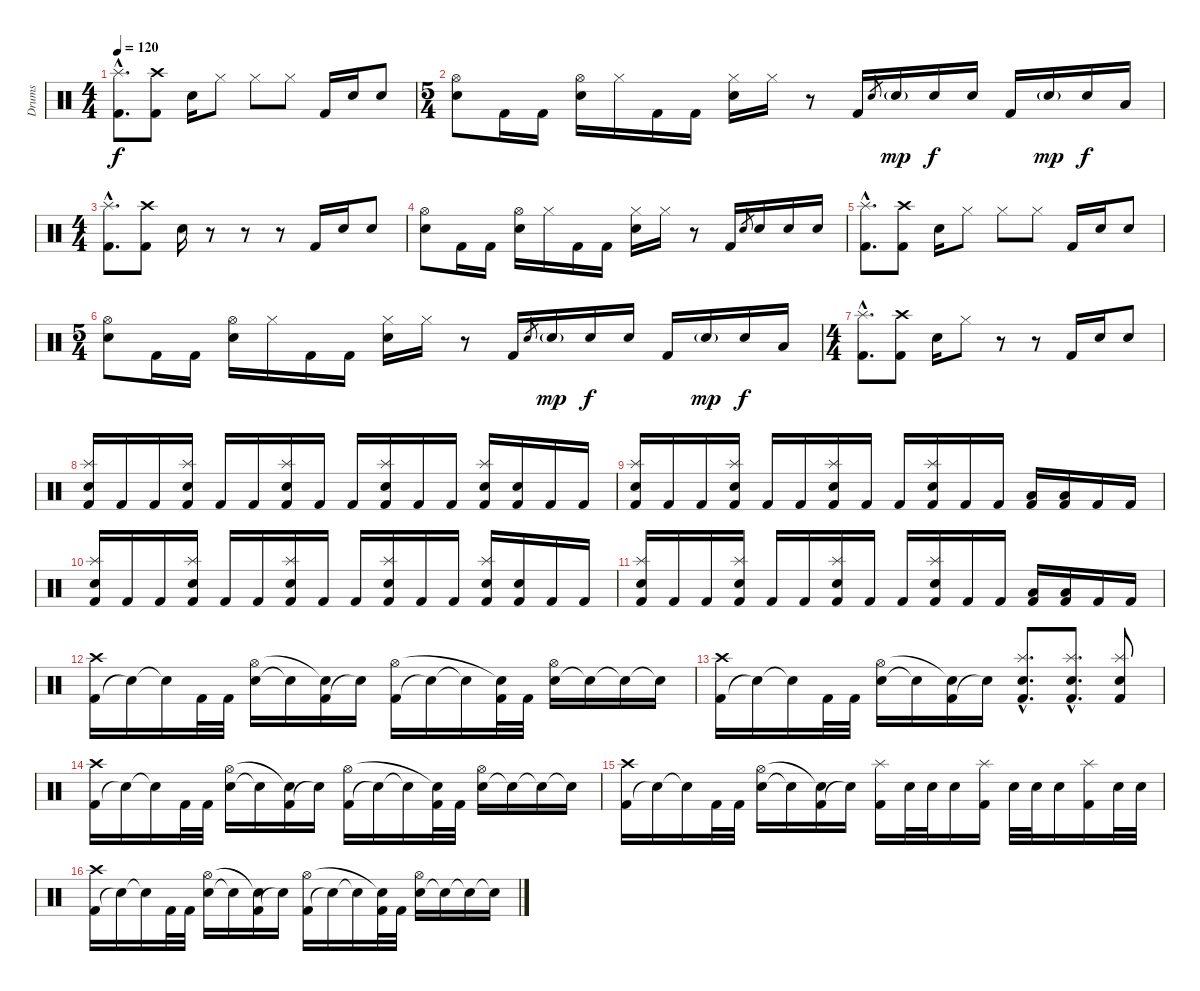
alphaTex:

\track ("Drums" "Drums") {instrument percussion}
\staff {score}
\articulation defaults
\ts (4 4)
\tempo 120
\clef neutral
\ks c
("Kick (hit) 2"{hac} "Splash (hit)"{hac}).8{d dy f} ("Kick (hit) 2" "Crash high (hit)").8 "Snare (hit) 2".16 "Hi-Hat (closed)".8 "Hi-Hat (closed)".8 "Hi-Hat (closed)".8 "Kick (hit) 2".16 "Snare (hit) 2".16 "Snare (hit) 2".8 |
\ts (5 4)
("Snare (hit) 2" "Hi-Hat (open)").8 "Kick (hit) 2".16 "Kick (hit) 2".16 ("Snare (hit) 2" "Hi-Hat (open)").16 "Hi-Hat (closed)".16 "Kick (hit) 2".16 "Kick (hit) 2".16 ("Snare (hit) 2" "Hi-Hat (closed)").16 "Hi-Hat (closed)".16 r.8 "Kick (hit) 2".16 "Snare (hit) 2".8{gr} "Snare (hit) 2"{g}.16{dy mp} "Snare (hit) 2".16{dy f} "Snare (hit) 2".16 "Kick (hit) 2".16 "Snare (hit) 2"{g}.16{dy mp} "Snare (hit) 2".16{dy f} "Low Tom (hit)".16 |
\ts (4 4)
("Kick (hit) 2"{hac} "Splash (hit)"{hac}).8{d} ("Kick (hit) 2" "Crash high (hit)").8 "Snare (hit) 2".16 r.8 r.8 r.8 "Kick (hit) 2".16 "Snare (hit) 2".16 "Snare (hit) 2".8 |
("Snare (hit) 2" "Hi-Hat (open)").8 "Kick (hit) 2".16 "Kick (hit) 2".16 ("Snare (hit) 2" "Hi-Hat (open)").16 "Hi-Hat (closed)".16 "Kick (hit) 2".16 "Kick (hit) 2".16 ("Snare (hit) 2" "Hi-Hat (closed)").16 "Hi-Hat (closed)".16 r.8 "Kick (hit) 2".16 "Snare (hit) 2".8{gr} "Snare (hit) 2".16 "Snare (hit) 2".16 "Snare (hit) 2".16 |
("Kick (hit) 2"{hac} "Splash (hit)"{hac}).8{d} ("Kick (hit) 2" "Crash high (hit)").8 "Snare (hit) 2".16 "Hi-Hat (closed)".8 "Hi-Hat (closed)".8 "Hi-Hat (closed)".8 "Kick (hit) 2".16 "Snare (hit) 2".16 "Snare (hit) 2".8 |
\ts (5 4)
("Snare (hit) 2" "Hi-Hat (open)").8 "Kick (hit) 2".16 "Kick (hit) 2".16 ("Snare (hit) 2" "Hi-Hat (open)").16 "Hi-Hat (closed)".16 "Kick (hit) 2".16 "Kick (hit) 2".16 ("Snare (hit) 2" "Hi-Hat (closed)").16 "Hi-Hat (closed)".16 r.8 "Kick (hit) 2".16 "Snare (hit) 2".8{gr} "Snare (hit) 2"{g}.16{dy mp} "Snare (hit) 2".16{dy f} "Snare (hit) 2".16 "Kick (hit) 2".16 "Snare (hit) 2"{g}.16{dy mp} "Snare (hit) 2".16{dy f} "Low Tom (hit)".16 |
\ts (4 4)
("Kick (hit) 2"{hac} "Splash (hit)"{hac}).8{d} ("Kick (hit) 2" "Crash high (hit)").8 "Snare (hit) 2".16 "Hi-Hat (closed)".8 r.8 r.8 "Kick (hit) 2".16 "Snare (hit) 2".16 "Snare (hit) 2".8 |
("Kick (hit) 2" "Snare (hit) 2" "Splash (hit)").16 "Kick (hit) 2".16 "Kick (hit) 2".16 ("Kick (hit) 2" "Snare (hit) 2" "Splash (hit)").16 "Kick (hit) 2".16 "Kick (hit) 2".16 ("Kick (hit) 2" "Snare (hit) 2" "Splash (hit)").16 "Kick (hit) 2".16 "Kick (hit) 2".16 ("Kick (hit) 2" "Snare (hit) 2" "Splash (hit)").16 "Kick (hit) 2".16 "Kick (hit) 2".16 ("Kick (hit) 2" "Snare (hit) 2" "Splash (hit)").16 ("Kick (hit) 2" "Snare (hit) 2").16 "Kick (hit) 2".16 "Kick (hit) 2".16 |
("Kick (hit) 2" "Snare (hit) 2" "Splash (hit)").16 "Kick (hit) 2".16 "Kick (hit) 2".16 ("Kick (hit) 2" "Snare (hit) 2" "Splash (hit)").16 "Kick (hit) 2".16 "Kick (hit) 2".16 ("Kick (hit) 2" "Snare (hit) 2" "Splash (hit)").16 "Kick (hit) 2".16 "Kick (hit) 2".16 ("Kick (hit) 2" "Snare (hit) 2" "Splash (hit)").16 "Kick (hit) 2".16 "Kick (hit) 2".16 ("Kick (hit) 2" "Low Tom (hit)").16 ("Kick (hit) 2" "Low Tom (hit)").16 "Kick (hit) 2".16 "Kick (hit) 2".16 |
("Kick (hit) 2" "Snare (hit) 2" "Splash (hit)").16 "Kick (hit) 2".16 "Kick (hit) 2".16 ("Kick (hit) 2" "Snare (hit) 2" "Splash (hit)").16 "Kick (hit) 2".16 "Kick (hit) 2".16 ("Kick (hit) 2" "Snare (hit) 2" "Splash (hit)").16 "Kick (hit) 2".16 "Kick (hit) 2".16 ("Kick (hit) 2" "Snare (hit) 2" "Splash (hit)").16 "Kick (hit) 2".16 "Kick (hit) 2".16 ("Kick (hit) 2" "Snare (hit) 2" "Splash (hit)").16 ("Kick (hit) 2" "Snare (hit) 2").16 "Kick (hit) 2".16 "Kick (hit) 2".16 |
("Kick (hit) 2" "Snare (hit) 2" "Splash (hit)").16 "Kick (hit) 2".16 "Kick (hit) 2".16 ("Kick (hit) 2" "Snare (hit) 2" "Splash (hit)").16 "Kick (hit) 2".16 "Kick (hit) 2".16 ("Kick (hit) 2" "Snare (hit) 2" "Splash (hit)").16 "Kick (hit) 2".16 "Kick (hit) 2".16 ("Kick (hit) 2" "Snare (hit) 2" "Splash (hit)").16 "Kick (hit) 2".16 "Kick (hit) 2".16 ("Kick (hit) 2" "Low Tom (hit)").16 ("Kick (hit) 2" "Low Tom (hit)").16 "Kick (hit) 2".16 "Kick (hit) 2".16 |
("Kick (hit) 2" "Crash high (hit)").16 "Snare (hit)"{t}.16 "Snare (hit)"{t}.16 "Kick (hit) 2".32 "Kick (hit) 2".32 ("Snare (hit) 2" "Hi-Hat (open)").16 "Snare (hit)"{t}.16 ("Kick (hit) 2" "Snare (hit)"{t}).16 "Snare (hit)"{t}.16 ("Kick (hit) 2" "Hi-Hat (open)").16 "Snare (hit)"{t}.16 "Snare (hit)"{t}.16 ("Kick (hit) 2" "Snare (hit)"{t}).32 "Kick (hit) 2".32 ("Snare (hit) 2" "Hi-Hat (open)").16 "Snare (hit)"{t}.16 "Snare (hit)"{t}.16 "Snare (hit)"{t}.16 |
("Kick (hit) 2" "Crash high (hit)").16 "Snare (hit)"{t}.16 "Snare (hit)"{t}.16 "Kick (hit) 2".32 "Kick (hit) 2".32 ("Snare (hit) 2" "Hi-Hat (open)").16 "Snare (hit)"{t}.16 ("Kick (hit) 2" "Snare (hit)"{t}).16 "Snare (hit)"{t}.16 ("Kick (hit) 2"{hac} "Snare (hit) 2"{hac} "Splash (hit)"{hac}).8{d} ("Kick (hit) 2"{hac} "Snare (hit) 2"{hac} "Splash (hit)"{hac}).8{d} ("Kick (hit) 2" "Snare (hit) 2" "Splash (hit)").8 |
("Kick (hit) 2" "Crash high (hit)").16 "Snare (hit)"{t}.16 "Snare (hit)"{t}.16 "Kick (hit) 2".32 "Kick (hit) 2".32 ("Snare (hit) 2" "Hi-Hat (open)").16 "Snare (hit)"{t}.16 ("Kick (hit) 2" "Snare (hit)"{t}).16 "Snare (hit)"{t}.16 ("Kick (hit) 2" "Hi-Hat (open)").16 "Snare (hit)"{t}.16 "Snare (hit)"{t}.16 ("Kick (hit) 2" "Snare (hit)"{t}).32 "Kick (hit) 2".32 ("Snare (hit) 2" "Hi-Hat (open)").16 "Snare (hit)"{t}.16 "Snare (hit)"{t}.16 "Snare (hit)"{t}.16 |
("Kick (hit) 2" "Crash high (hit)").16 "Snare (hit)"{t}.16 "Snare (hit)"{t}.16 "Kick (hit) 2".32 "Kick (hit) 2".32 ("Snare (hit) 2" "Hi-Hat (open)").16 "Snare (hit)"{t}.16 ("Kick (hit) 2" "Snare (hit)"{t}).16 "Snare (hit)"{t}.16 ("Kick (hit) 2" "Splash (hit)").16 "Snare (hit) 2".32 "Snare (hit) 2".32 "Snare (hit) 2".16 ("Kick (hit) 2" "Splash (hit)").16 "Snare (hit) 2".32 "Snare (hit) 2".32 "Snare (hit) 2".16 ("Kick (hit) 2" "Splash (hit)").16 "Snare (hit) 2".32 "Snare (hit) 2".32 |
("Kick (hit) 2" "Crash high (hit)").16 "Snare (hit)"{t}.16 "Snare (hit)"{t}.16 "Kick (hit) 2".32 "Kick (hit) 2".32 ("Snare (hit) 2" "Hi-Hat (open)").16 "Snare (hit)"{t}.16 ("Kick (hit) 2" "Snare (hit)"{t}).16 "Snare (hit)"{t}.16 ("Kick (hit) 2" "Hi-Hat (open)").16 "Snare (hit)"{t}.16 "Snare (hit)"{t}.16 ("Kick (hit) 2" "Snare (hit)"{t}).32 "Kick (hit) 2".32 ("Snare (hit) 2" "Hi-Hat (open)").16 "Snare (hit)"{t}.16 "Snare (hit)"{t}.16 "Snare (hit)"{t}.16
